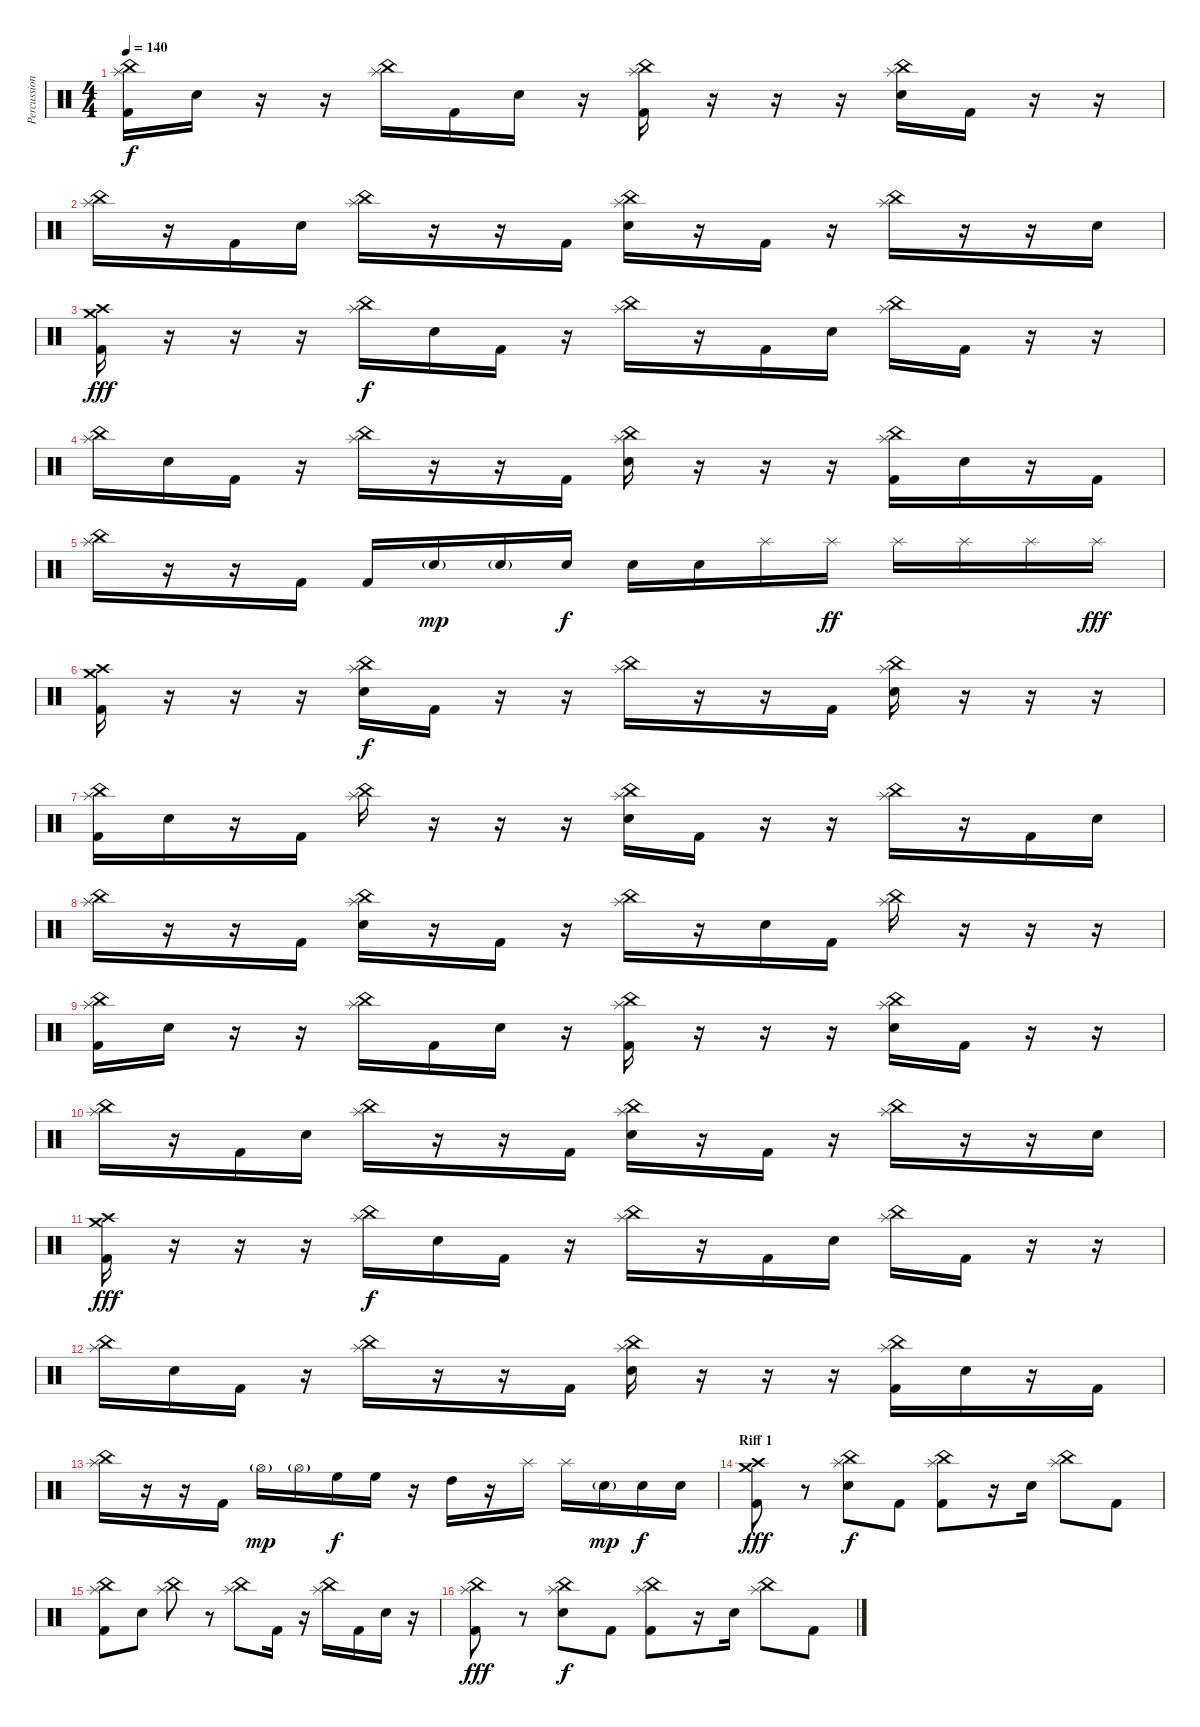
\track ("Percussion" "Percussion") {instrument percussion}
\staff {score}
\articulation defaults
\ts (4 4)
\tempo 140
\clef neutral
\ks c
("China (hit)" "Splash (hit)" "Kick (hit) 2").16{dy f} "Electric Snare (hit)".16 r.16 r.16 ("China (hit)" "Splash (hit)").16 "Kick (hit) 2".16 "Electric Snare (hit)".16 r.16 ("China (hit)" "Splash (hit)" "Kick (hit) 2").16 r.16 r.16 r.16 ("China (hit)" "Splash (hit)" "Electric Snare (hit)").16 "Kick (hit) 2".16 r.16 r.16 |
("China (hit)" "Splash (hit)").16 r.16 "Kick (hit) 2".16 "Electric Snare (hit)".16 ("China (hit)" "Splash (hit)").16 r.16 r.16 "Kick (hit) 2".16 ("China (hit)" "Splash (hit)" "Electric Snare (hit)").16 r.16 "Kick (hit) 2".16 r.16 ("China (hit)" "Splash (hit)").16 r.16 r.16 "Electric Snare (hit)".16 |
("Crash medium (hit)" "Crash high (hit)" "Kick (hit) 2").16{dy fff} r.16 r.16 r.16 ("China (hit)" "Splash (hit)").16{dy f} "Electric Snare (hit)".16 "Kick (hit) 2".16 r.16 ("China (hit)" "Splash (hit)").16 r.16 "Kick (hit) 2".16 "Electric Snare (hit)".16 ("China (hit)" "Splash (hit)").16 "Kick (hit) 2".16 r.16 r.16 |
("China (hit)" "Splash (hit)").16 "Electric Snare (hit)".16 "Kick (hit) 2".16 r.16 ("China (hit)" "Splash (hit)").16 r.16 r.16 "Kick (hit) 2".16 ("China (hit)" "Splash (hit)" "Electric Snare (hit)").16 r.16 r.16 r.16 ("China (hit)" "Splash (hit)" "Kick (hit) 2").16 "Electric Snare (hit)".16 r.16 "Kick (hit) 2".16 |
("China (hit)" "Splash (hit)").16 r.16 r.16 "Kick (hit) 2".16 "Kick (hit) 2".16 "Electric Snare (hit)"{g}.16{dy mp} "Electric Snare (hit)"{g}.16 "Electric Snare (hit)".16{dy f} "Electric Snare (hit)".16 "Electric Snare (hit)".16 "Splash (hit)".16 "Splash (hit)".16{dy ff} "Splash (hit)".16 "Splash (hit)".16 "Splash (hit)".16 "Splash (hit)".16{dy fff} |
("Crash medium (hit)" "Crash high (hit)" "Kick (hit) 2").16 r.16 r.16 r.16 ("China (hit)" "Splash (hit)" "Electric Snare (hit)").16{dy f} "Kick (hit) 2".16 r.16 r.16 ("China (hit)" "Splash (hit)").16 r.16 r.16 "Kick (hit) 2".16 ("China (hit)" "Splash (hit)" "Electric Snare (hit)").16 r.16 r.16 r.16 |
("China (hit)" "Splash (hit)" "Kick (hit) 2").16 "Electric Snare (hit)".16 r.16 "Kick (hit) 2".16 ("China (hit)" "Splash (hit)").16 r.16 r.16 r.16 ("China (hit)" "Splash (hit)" "Electric Snare (hit)").16 "Kick (hit) 2".16 r.16 r.16 ("China (hit)" "Splash (hit)").16 r.16 "Kick (hit) 2".16 "Electric Snare (hit)".16 |
("China (hit)" "Splash (hit)").16 r.16 r.16 "Kick (hit) 2".16 ("China (hit)" "Splash (hit)" "Electric Snare (hit)").16 r.16 "Kick (hit) 2".16 r.16 ("China (hit)" "Splash (hit)").16 r.16 "Electric Snare (hit)".16 "Kick (hit) 2".16 ("China (hit)" "Splash (hit)").16 r.16 r.16 r.16 |
("China (hit)" "Splash (hit)" "Kick (hit) 2").16 "Electric Snare (hit)".16 r.16 r.16 ("China (hit)" "Splash (hit)").16 "Kick (hit) 2".16 "Electric Snare (hit)".16 r.16 ("China (hit)" "Splash (hit)" "Kick (hit) 2").16 r.16 r.16 r.16 ("China (hit)" "Splash (hit)" "Electric Snare (hit)").16 "Kick (hit) 2".16 r.16 r.16 |
("China (hit)" "Splash (hit)").16 r.16 "Kick (hit) 2".16 "Electric Snare (hit)".16 ("China (hit)" "Splash (hit)").16 r.16 r.16 "Kick (hit) 2".16 ("China (hit)" "Splash (hit)" "Electric Snare (hit)").16 r.16 "Kick (hit) 2".16 r.16 ("China (hit)" "Splash (hit)").16 r.16 r.16 "Electric Snare (hit)".16 |
("Crash medium (hit)" "Crash high (hit)" "Kick (hit) 2").16{dy fff} r.16 r.16 r.16 ("China (hit)" "Splash (hit)").16{dy f} "Electric Snare (hit)".16 "Kick (hit) 2".16 r.16 ("China (hit)" "Splash (hit)").16 r.16 "Kick (hit) 2".16 "Electric Snare (hit)".16 ("China (hit)" "Splash (hit)").16 "Kick (hit) 2".16 r.16 r.16 |
("China (hit)" "Splash (hit)").16 "Electric Snare (hit)".16 "Kick (hit) 2".16 r.16 ("China (hit)" "Splash (hit)").16 r.16 r.16 "Kick (hit) 2".16 ("China (hit)" "Splash (hit)" "Electric Snare (hit)").16 r.16 r.16 r.16 ("China (hit)" "Splash (hit)" "Kick (hit) 2").16 "Electric Snare (hit)".16 r.16 "Kick (hit) 2".16 |
("China (hit)" "Splash (hit)").16 r.16 r.16 "Kick (hit) 2".16 "Hi-Hat (open)"{g}.16{dy mp} "Hi-Hat (open)"{g}.16 "High Floor Tom (hit)".16{dy f} "High Floor Tom (hit)".16 r.16 "High Tom (hit)".16 r.16 "Splash (hit)".16 "Splash (hit)".16 "Electric Snare (hit)"{g}.16{dy mp} "Electric Snare (hit)".16{dy f} "Electric Snare (hit)".16 |
\section ("" "Riff 1")
("Crash medium (hit)" "Crash high (hit)" "Kick (hit) 2").8{dy fff} r.8 ("Splash (hit)" "China (hit)" "Electric Snare (hit)").8{dy f} "Kick (hit) 2".8 ("Splash (hit)" "China (hit)" "Kick (hit) 2").8 r.16 "Electric Snare (hit)".16 ("Splash (hit)" "China (hit)").8 "Kick (hit) 2".8 |
("Splash (hit)" "China (hit)" "Kick (hit) 2").8 "Electric Snare (hit)".8 ("Splash (hit)" "China (hit)").8 r.8 ("Splash (hit)" "China (hit)").8 "Kick (hit) 2".16 r.16 ("Splash (hit)" "China (hit)").16 "Kick (hit) 2".16 "Electric Snare (hit)".16 r.16 |
("Splash (hit)" "China (hit)" "Kick (hit) 2").8{dy fff} r.8 ("Splash (hit)" "China (hit)" "Electric Snare (hit)").8{dy f} "Kick (hit) 2".8 ("Splash (hit)" "China (hit)" "Kick (hit) 2").8 r.16 "Electric Snare (hit)".16 ("Splash (hit)" "China (hit)").8 "Kick (hit) 2".8
